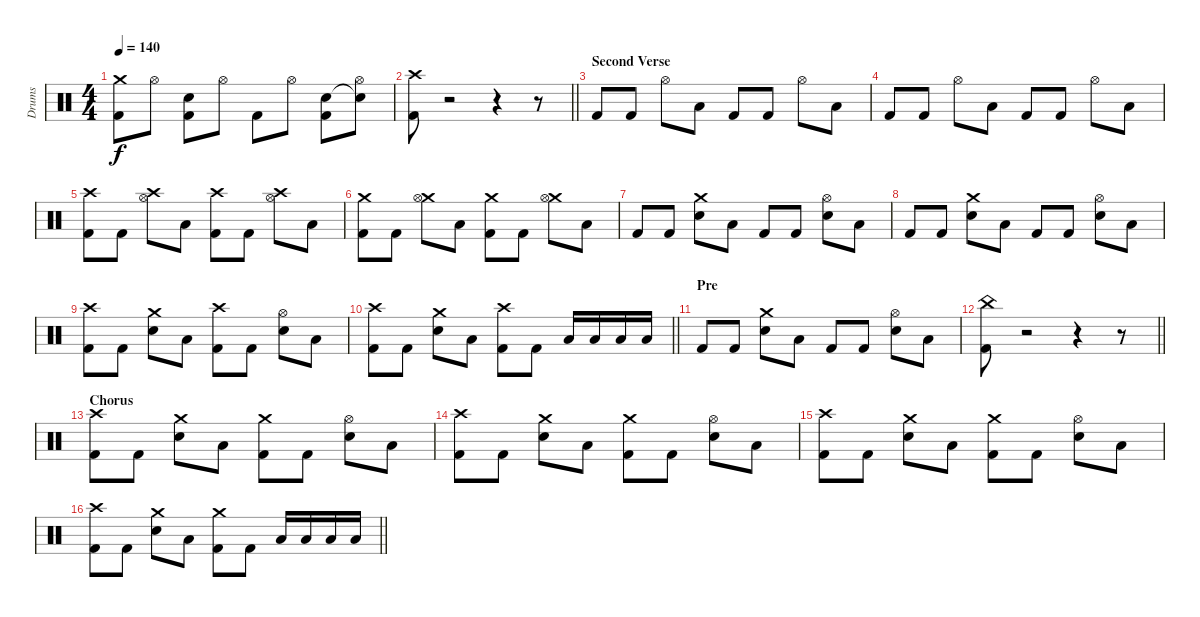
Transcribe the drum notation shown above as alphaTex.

\track ("Drums" "Drums") {instrument percussion}
\staff
\articulation defaults
\ts (4 4)
\tempo 140
\clef neutral
\ks c
("Crash medium (hit)" "Kick (hit) 2").8{dy f} "Hi-Hat (open)".8 ("Snare (hit) 2" "Kick (hit) 2").8 "Hi-Hat (open)".8 "Kick (hit) 2".8 "Hi-Hat (open)".8 ("Snare (hit) 2" "Kick (hit) 2").8 ("Snare (hit)"{t} "Hi-Hat (open)").8 |
\barLineRight lightlight
("Crash high (hit)" "Kick (hit) 2").8 r.2 r.4 r.8 |
\section ("" "Second Verse")
"Kick (hit) 2".8 "Kick (hit) 2".8 "Hi-Hat (open)".8 "Low Floor Tom (hit)".8 "Kick (hit) 2".8 "Kick (hit) 2".8 "Hi-Hat (open)".8 "Low Floor Tom (hit)".8 |
"Kick (hit) 2".8 "Kick (hit) 2".8 "Hi-Hat (open)".8 "Low Floor Tom (hit)".8 "Kick (hit) 2".8 "Kick (hit) 2".8 "Hi-Hat (open)".8 "Low Floor Tom (hit)".8 |
("Crash high (hit)" "Kick (hit) 2").8 "Kick (hit) 2".8 ("Crash high (hit)" "Hi-Hat (open)").8 "Low Floor Tom (hit)".8 ("Crash high (hit)" "Kick (hit) 2").8 "Kick (hit) 2".8 ("Crash high (hit)" "Hi-Hat (open)").8 "Low Floor Tom (hit)".8 |
("Crash medium (hit)" "Kick (hit) 2").8 "Kick (hit) 2".8 ("Crash medium (hit)" "Hi-Hat (open)").8 "Low Floor Tom (hit)".8 ("Crash medium (hit)" "Kick (hit) 2").8 "Kick (hit) 2".8 ("Crash medium (hit)" "Hi-Hat (open)").8 "Low Floor Tom (hit)".8 |
"Kick (hit) 2".8 "Kick (hit) 2".8 ("Snare (hit) 2" "Crash medium (hit)").8 "Low Floor Tom (hit)".8 "Kick (hit) 2".8 "Kick (hit) 2".8 ("Snare (hit) 2" "Hi-Hat (open)").8 "Low Floor Tom (hit)".8 |
"Kick (hit) 2".8 "Kick (hit) 2".8 ("Snare (hit) 2" "Crash medium (hit)").8 "Low Floor Tom (hit)".8 "Kick (hit) 2".8 "Kick (hit) 2".8 ("Snare (hit) 2" "Hi-Hat (open)").8 "Low Floor Tom (hit)".8 |
("Crash high (hit)" "Kick (hit) 2").8 "Kick (hit) 2".8 ("Snare (hit) 2" "Crash medium (hit)").8 "Low Floor Tom (hit)".8 ("Crash high (hit)" "Kick (hit) 2").8 "Kick (hit) 2".8 ("Snare (hit) 2" "Hi-Hat (open)").8 "Low Floor Tom (hit)".8 |
\barLineRight lightlight
("Crash high (hit)" "Kick (hit) 2").8 "Kick (hit) 2".8 ("Snare (hit) 2" "Crash medium (hit)").8 "Low Floor Tom (hit)".8 ("Crash high (hit)" "Kick (hit) 2").8 "Kick (hit) 2".8 "Low Tom (hit)".16 "Low Tom (hit)".16 "Low Floor Tom (hit)".16 "Low Floor Tom (hit)".16 |
\section ("" "Pre")
"Kick (hit) 2".8 "Kick (hit) 2".8 ("Snare (hit) 2" "Crash medium (hit)").8 "Low Floor Tom (hit)".8 "Kick (hit) 2".8 "Kick (hit) 2".8 ("Snare (hit) 2" "Hi-Hat (open)").8 "Low Floor Tom (hit)".8 |
\barLineRight lightlight
("China (hit)" "Kick (hit) 2").8 r.2 r.4 r.8 |
\section ("" "Chorus")
("Crash high (hit)" "Kick (hit) 2").8 "Kick (hit) 2".8 ("Snare (hit) 2" "Crash medium (hit)").8 "Low Floor Tom (hit)".8 ("Crash medium (hit)" "Kick (hit) 2").8 "Kick (hit) 2".8 ("Snare (hit) 2" "Hi-Hat (open)").8 "Low Floor Tom (hit)".8 |
("Crash high (hit)" "Kick (hit) 2").8 "Kick (hit) 2".8 ("Snare (hit) 2" "Crash medium (hit)").8 "Low Floor Tom (hit)".8 ("Crash medium (hit)" "Kick (hit) 2").8 "Kick (hit) 2".8 ("Snare (hit) 2" "Hi-Hat (open)").8 "Low Floor Tom (hit)".8 |
("Crash high (hit)" "Kick (hit) 2").8 "Kick (hit) 2".8 ("Snare (hit) 2" "Crash medium (hit)").8 "Low Floor Tom (hit)".8 ("Crash medium (hit)" "Kick (hit) 2").8 "Kick (hit) 2".8 ("Snare (hit) 2" "Hi-Hat (open)").8 "Low Floor Tom (hit)".8 |
\barLineRight lightlight
("Crash high (hit)" "Kick (hit) 2").8 "Kick (hit) 2".8 ("Snare (hit) 2" "Crash medium (hit)").8 "Low Floor Tom (hit)".8 ("Crash medium (hit)" "Kick (hit) 2").8 "Kick (hit) 2".8 "Low Tom (hit)".16 "Low Tom (hit)".16 "Low Floor Tom (hit)".16 "Low Floor Tom (hit)".16
